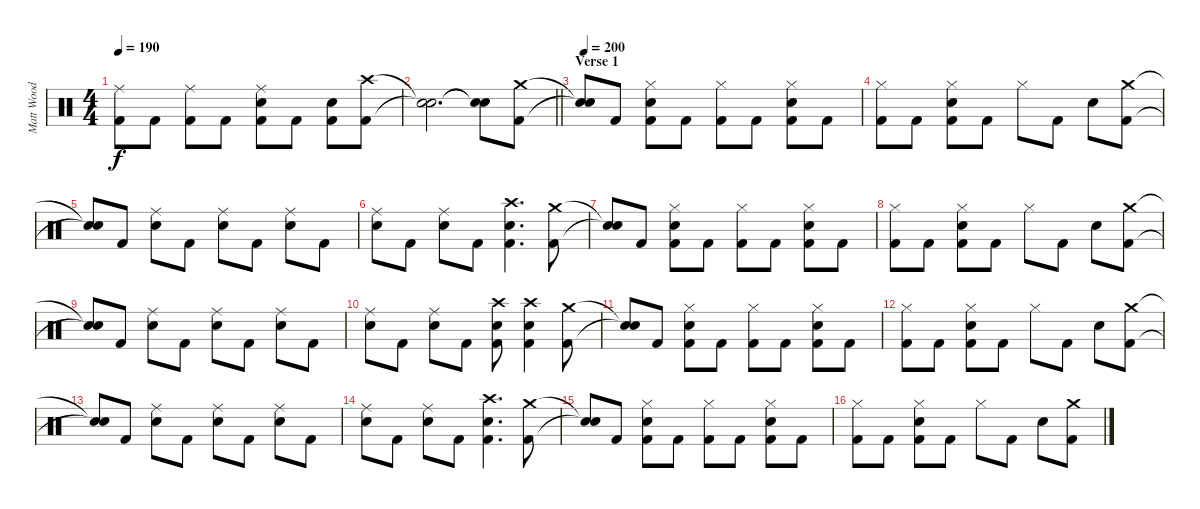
\track ("Matt Wood" "Matt Wood") {instrument percussion}
\staff {score}
\articulation defaults
\ts (4 4)
\tempo 190
\clef neutral
\ks c
("Ride (middle)" "Kick (hit) 2").8{dy f} "Kick (hit) 2".8 ("Ride (middle)" "Kick (hit) 2").8 "Kick (hit) 2".8 ("Ride (middle)" "Snare (hit) 2" "Kick (hit) 2").8 "Kick (hit) 2".8 ("Snare (hit) 2" "Kick (hit) 2").8 ("Crash high (hit)" "Kick (hit) 2").8 |
\barLineRight lightlight
("Snare (hit)"{t} "Snare (hit)"{t}).2{d} ("Snare (hit)"{t} "Snare (hit)"{t}).8 ("Crash medium (hit)" "Kick (hit) 2").8 |
\section ("" "Verse 1")
\tempo 200
("Snare (hit)"{t} "Snare (hit)"{t}).8 "Kick (hit) 2".8 ("Hi-Hat (closed)" "Snare (hit) 2" "Kick (hit) 2").8 "Kick (hit) 2".8 ("Hi-Hat (closed)" "Kick (hit) 2").8 "Kick (hit) 2".8 ("Hi-Hat (closed)" "Snare (hit) 2" "Kick (hit) 2").8 "Kick (hit) 2".8 |
("Hi-Hat (closed)" "Kick (hit) 2").8 "Kick (hit) 2".8 ("Hi-Hat (closed)" "Snare (hit) 2" "Kick (hit) 2").8 "Kick (hit) 2".8 "Hi-Hat (closed)".8 "Kick (hit) 2".8 "Snare (hit) 2".8 ("Crash medium (hit)" "Kick (hit) 2").8 |
("Snare (hit)"{t} "Snare (hit)"{t}).8 "Kick (hit) 2".8 ("Ride (middle)" "Snare (hit) 2").8 "Kick (hit) 2".8 ("Ride (middle)" "Snare (hit) 2").8 "Kick (hit) 2".8 ("Ride (middle)" "Snare (hit) 2").8 "Kick (hit) 2".8 |
("Ride (middle)" "Snare (hit) 2").8 "Kick (hit) 2".8 ("Ride (middle)" "Snare (hit) 2").8 "Kick (hit) 2".8 ("Crash high (hit)" "Snare (hit) 2" "Kick (hit) 2").4{d} ("Crash medium (hit)" "Kick (hit) 2").8 |
("Snare (hit)"{t} "Snare (hit)"{t}).8 "Kick (hit) 2".8 ("Hi-Hat (closed)" "Snare (hit) 2" "Kick (hit) 2").8 "Kick (hit) 2".8 ("Hi-Hat (closed)" "Kick (hit) 2").8 "Kick (hit) 2".8 ("Hi-Hat (closed)" "Snare (hit) 2" "Kick (hit) 2").8 "Kick (hit) 2".8 |
("Hi-Hat (closed)" "Kick (hit) 2").8 "Kick (hit) 2".8 ("Hi-Hat (closed)" "Snare (hit) 2" "Kick (hit) 2").8 "Kick (hit) 2".8 "Hi-Hat (closed)".8 "Kick (hit) 2".8 "Snare (hit) 2".8 ("Crash medium (hit)" "Kick (hit) 2").8 |
("Snare (hit)"{t} "Snare (hit)"{t}).8 "Kick (hit) 2".8 ("Ride (middle)" "Snare (hit) 2").8 "Kick (hit) 2".8 ("Ride (middle)" "Snare (hit) 2").8 "Kick (hit) 2".8 ("Ride (middle)" "Snare (hit) 2").8 "Kick (hit) 2".8 |
("Ride (middle)" "Snare (hit) 2").8 "Kick (hit) 2".8 ("Ride (middle)" "Snare (hit) 2").8 "Kick (hit) 2".8 ("Crash high (hit)" "Snare (hit) 2" "Kick (hit) 2").8 ("Crash high (hit)" "Snare (hit) 2" "Kick (hit) 2").4 ("Crash medium (hit)" "Kick (hit) 2").8 |
("Snare (hit)"{t} "Snare (hit)"{t}).8 "Kick (hit) 2".8 ("Hi-Hat (closed)" "Snare (hit) 2" "Kick (hit) 2").8 "Kick (hit) 2".8 ("Hi-Hat (closed)" "Kick (hit) 2").8 "Kick (hit) 2".8 ("Hi-Hat (closed)" "Snare (hit) 2" "Kick (hit) 2").8 "Kick (hit) 2".8 |
("Hi-Hat (closed)" "Kick (hit) 2").8 "Kick (hit) 2".8 ("Hi-Hat (closed)" "Snare (hit) 2" "Kick (hit) 2").8 "Kick (hit) 2".8 "Hi-Hat (closed)".8 "Kick (hit) 2".8 "Snare (hit) 2".8 ("Crash medium (hit)" "Kick (hit) 2").8 |
("Snare (hit)"{t} "Snare (hit)"{t}).8 "Kick (hit) 2".8 ("Ride (middle)" "Snare (hit) 2").8 "Kick (hit) 2".8 ("Ride (middle)" "Snare (hit) 2").8 "Kick (hit) 2".8 ("Ride (middle)" "Snare (hit) 2").8 "Kick (hit) 2".8 |
("Ride (middle)" "Snare (hit) 2").8 "Kick (hit) 2".8 ("Ride (middle)" "Snare (hit) 2").8 "Kick (hit) 2".8 ("Crash high (hit)" "Snare (hit) 2" "Kick (hit) 2").4{d} ("Crash medium (hit)" "Kick (hit) 2").8 |
("Snare (hit)"{t} "Snare (hit)"{t}).8 "Kick (hit) 2".8 ("Hi-Hat (closed)" "Snare (hit) 2" "Kick (hit) 2").8 "Kick (hit) 2".8 ("Hi-Hat (closed)" "Kick (hit) 2").8 "Kick (hit) 2".8 ("Hi-Hat (closed)" "Snare (hit) 2" "Kick (hit) 2").8 "Kick (hit) 2".8 |
("Hi-Hat (closed)" "Kick (hit) 2").8 "Kick (hit) 2".8 ("Hi-Hat (closed)" "Snare (hit) 2" "Kick (hit) 2").8 "Kick (hit) 2".8 "Hi-Hat (closed)".8 "Kick (hit) 2".8 "Snare (hit) 2".8 ("Crash medium (hit)" "Kick (hit) 2").8
